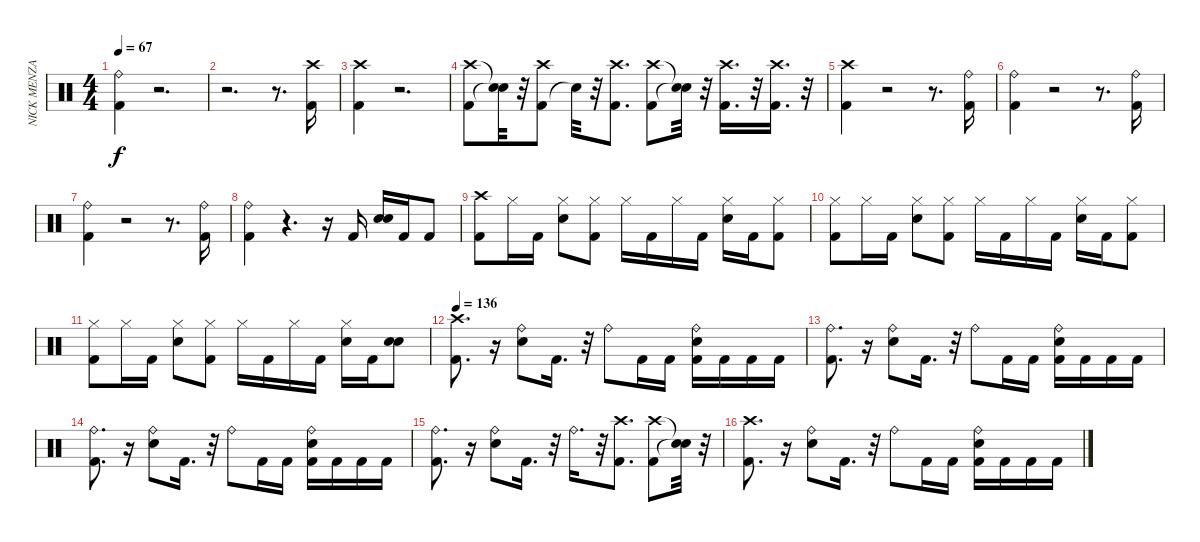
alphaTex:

\track ("NICK MENZA" "NICK MENZA") {instrument percussion}
\staff {score}
\articulation defaults
\ts (4 4)
\tempo 67
\clef neutral
\ks c
("Ride (bell)" "Kick (hit) 2").4{dy f} r.2{d} |
r.2{d} r.8{d} ("Kick (hit) 2" "Crash high (hit)").16 |
("Crash high (hit)" "Kick (hit) 2").4 r.2{d} |
("Crash high (hit)" "Kick (hit) 2").8 ("Snare (hit)"{t} "Snare (hit)"{t}).32 r.32 ("Kick (hit) 2" "Crash high (hit)").8 "Snare (hit)"{t}.32 r.32 ("Crash high (hit)" "Kick (hit) 2").8{d} ("Crash high (hit)" "Kick (hit) 2").8 ("Snare (hit)"{t} "Snare (hit)"{t}).32 r.32 ("Kick (hit) 2" "Crash high (hit)").16{d} r.32 ("Crash high (hit)" "Kick (hit) 2").16{d} r.32 |
("Crash high (hit)" "Kick (hit) 2").4 r.2 r.8{d} ("Kick (hit) 2" "Ride (bell)").16 |
("Kick (hit) 2" "Ride (bell)").4 r.2 r.8{d} ("Kick (hit) 2" "Ride (bell)").16 |
("Kick (hit) 2" "Ride (bell)").4 r.2 r.8{d} ("Kick (hit) 2" "Ride (bell)").16 |
("Kick (hit) 2" "Ride (bell)").4 r.4{d} r.16 "Kick (hit) 2".16 ("Snare (hit) 2" "Snare (hit) 2").16 "Kick (hit) 2".16 "Kick (hit) 2".8 |
("Crash high (hit)" "Kick (hit) 2").8 "Hi-Hat (closed)".16 "Kick (hit) 2".16 ("Hi-Hat (closed)" "Snare (hit) 2").8 ("Hi-Hat (closed)" "Kick (hit) 2").8 "Hi-Hat (closed)".16 "Kick (hit) 2".16 "Hi-Hat (closed)".16 "Kick (hit) 2".16 ("Snare (hit) 2" "Hi-Hat (closed)").16 "Kick (hit) 2".16 ("Kick (hit) 2" "Hi-Hat (closed)").8 |
("Hi-Hat (closed)" "Kick (hit) 2").8 "Hi-Hat (closed)".16 "Kick (hit) 2".16 ("Snare (hit) 2" "Hi-Hat (closed)").8 ("Hi-Hat (closed)" "Kick (hit) 2").8 "Hi-Hat (closed)".16 "Kick (hit) 2".16 "Hi-Hat (closed)".16 "Kick (hit) 2".16 ("Hi-Hat (closed)" "Snare (hit) 2").16 "Kick (hit) 2".16 ("Kick (hit) 2" "Hi-Hat (closed)").8 |
("Kick (hit) 2" "Hi-Hat (closed)").8 "Hi-Hat (closed)".16 "Kick (hit) 2".16 ("Snare (hit) 2" "Hi-Hat (closed)").8 ("Hi-Hat (closed)" "Kick (hit) 2").8 "Hi-Hat (closed)".16 "Kick (hit) 2".16 "Hi-Hat (closed)".16 "Kick (hit) 2".16 ("Snare (hit) 2" "Hi-Hat (closed)").16 "Kick (hit) 2".16 ("Snare (hit) 2" "Snare (hit) 2").8 |
\tempo 136
("Crash high (hit)" "Kick (hit) 2").8{d} r.16 ("Snare (hit) 2" "Ride (bell)").8 "Kick (hit) 2".16{d} r.32 "Ride (bell)".8 "Kick (hit) 2".16 "Kick (hit) 2".16 ("Ride (bell)" "Snare (hit) 2" "Kick (hit) 2").16 "Kick (hit) 2".16 "Kick (hit) 2".16 "Kick (hit) 2".16 |
("Kick (hit) 2" "Ride (bell)").8{d} r.16 ("Snare (hit) 2" "Ride (bell)").8 "Kick (hit) 2".16{d} r.32 "Ride (bell)".8 "Kick (hit) 2".16 "Kick (hit) 2".16 ("Snare (hit) 2" "Ride (bell)" "Kick (hit) 2").16 "Kick (hit) 2".16 "Kick (hit) 2".16 "Kick (hit) 2".16 |
("Kick (hit) 2" "Ride (bell)").8{d} r.16 ("Snare (hit) 2" "Ride (bell)").8 "Kick (hit) 2".16{d} r.32 "Ride (bell)".8 "Kick (hit) 2".16 "Kick (hit) 2".16 ("Ride (bell)" "Snare (hit) 2" "Kick (hit) 2").16 "Kick (hit) 2".16 "Kick (hit) 2".16 "Kick (hit) 2".16 |
("Kick (hit) 2" "Ride (bell)").8{d} r.16 ("Ride (bell)" "Snare (hit) 2").8 "Kick (hit) 2".16{d} r.32 "Ride (bell)".16{d} r.32 ("Kick (hit) 2" "Crash high (hit)").8{d} ("Kick (hit) 2" "Crash high (hit)").8 ("Snare (hit)"{t} "Snare (hit)"{t}).32 r.32 |
("Crash high (hit)" "Kick (hit) 2").8{d} r.16 ("Ride (bell)" "Snare (hit) 2").8 "Kick (hit) 2".16{d} r.32 "Ride (bell)".8 "Kick (hit) 2".16 "Kick (hit) 2".16 ("Ride (bell)" "Snare (hit) 2" "Kick (hit) 2").16 "Kick (hit) 2".16 "Kick (hit) 2".16 "Kick (hit) 2".16
